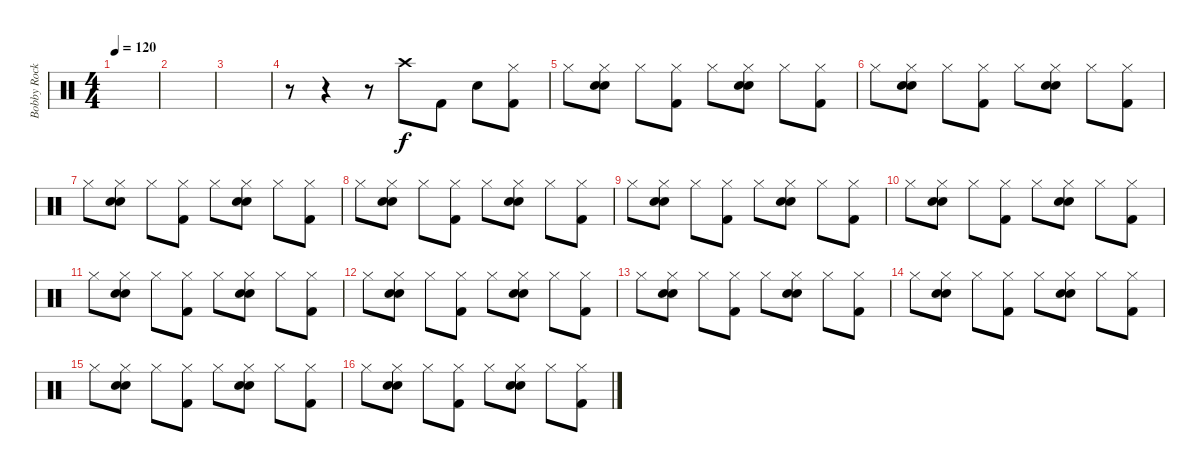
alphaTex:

\track ("Bobby Rock" "Bobby Rock") {instrument percussion}
\staff {score}
\articulation defaults
\ts (4 4)
\tempo 120
\clef neutral
\ks c
|
|
|
r.8 r.4 r.8 "Crash high (hit)".8 "Kick (hit) 2".8 "Electric Snare (hit)".8 ("Hi-Hat (closed)" "Kick (hit) 2").8 |
"Hi-Hat (closed)".8 ("Hi-Hat (closed)" "Snare (hit) 2" "Electric Snare (hit)").8 "Hi-Hat (closed)".8 ("Hi-Hat (closed)" "Kick (hit) 2").8 "Hi-Hat (closed)".8 ("Hi-Hat (closed)" "Snare (hit) 2" "Electric Snare (hit)").8 "Hi-Hat (closed)".8 ("Hi-Hat (closed)" "Kick (hit) 2").8 |
"Hi-Hat (closed)".8 ("Hi-Hat (closed)" "Snare (hit) 2" "Electric Snare (hit)").8 "Hi-Hat (closed)".8 ("Hi-Hat (closed)" "Kick (hit) 2").8 "Hi-Hat (closed)".8 ("Hi-Hat (closed)" "Snare (hit) 2" "Electric Snare (hit)").8 "Hi-Hat (closed)".8 ("Hi-Hat (closed)" "Kick (hit) 2").8 |
"Hi-Hat (closed)".8 ("Hi-Hat (closed)" "Snare (hit) 2" "Electric Snare (hit)").8 "Hi-Hat (closed)".8 ("Hi-Hat (closed)" "Kick (hit) 2").8 "Hi-Hat (closed)".8 ("Hi-Hat (closed)" "Snare (hit) 2" "Electric Snare (hit)").8 "Hi-Hat (closed)".8 ("Hi-Hat (closed)" "Kick (hit) 2").8 |
"Hi-Hat (closed)".8 ("Hi-Hat (closed)" "Snare (hit) 2" "Electric Snare (hit)").8 "Hi-Hat (closed)".8 ("Hi-Hat (closed)" "Kick (hit) 2").8 "Hi-Hat (closed)".8 ("Hi-Hat (closed)" "Snare (hit) 2" "Electric Snare (hit)").8 "Hi-Hat (closed)".8 ("Hi-Hat (closed)" "Kick (hit) 2").8 |
"Hi-Hat (closed)".8 ("Hi-Hat (closed)" "Snare (hit) 2" "Electric Snare (hit)").8 "Hi-Hat (closed)".8 ("Hi-Hat (closed)" "Kick (hit) 2").8 "Hi-Hat (closed)".8 ("Hi-Hat (closed)" "Snare (hit) 2" "Electric Snare (hit)").8 "Hi-Hat (closed)".8 ("Hi-Hat (closed)" "Kick (hit) 2").8 |
"Hi-Hat (closed)".8 ("Hi-Hat (closed)" "Snare (hit) 2" "Electric Snare (hit)").8 "Hi-Hat (closed)".8 ("Hi-Hat (closed)" "Kick (hit) 2").8 "Hi-Hat (closed)".8 ("Hi-Hat (closed)" "Snare (hit) 2" "Electric Snare (hit)").8 "Hi-Hat (closed)".8 ("Hi-Hat (closed)" "Kick (hit) 2").8 |
"Hi-Hat (closed)".8 ("Hi-Hat (closed)" "Snare (hit) 2" "Electric Snare (hit)").8 "Hi-Hat (closed)".8 ("Hi-Hat (closed)" "Kick (hit) 2").8 "Hi-Hat (closed)".8 ("Hi-Hat (closed)" "Snare (hit) 2" "Electric Snare (hit)").8 "Hi-Hat (closed)".8 ("Hi-Hat (closed)" "Kick (hit) 2").8 |
"Hi-Hat (closed)".8 ("Hi-Hat (closed)" "Snare (hit) 2" "Electric Snare (hit)").8 "Hi-Hat (closed)".8 ("Hi-Hat (closed)" "Kick (hit) 2").8 "Hi-Hat (closed)".8 ("Hi-Hat (closed)" "Snare (hit) 2" "Electric Snare (hit)").8 "Hi-Hat (closed)".8 ("Hi-Hat (closed)" "Kick (hit) 2").8 |
"Hi-Hat (closed)".8 ("Hi-Hat (closed)" "Snare (hit) 2" "Electric Snare (hit)").8 "Hi-Hat (closed)".8 ("Hi-Hat (closed)" "Kick (hit) 2").8 "Hi-Hat (closed)".8 ("Hi-Hat (closed)" "Snare (hit) 2" "Electric Snare (hit)").8 "Hi-Hat (closed)".8 ("Hi-Hat (closed)" "Kick (hit) 2").8 |
"Hi-Hat (closed)".8 ("Hi-Hat (closed)" "Snare (hit) 2" "Electric Snare (hit)").8 "Hi-Hat (closed)".8 ("Hi-Hat (closed)" "Kick (hit) 2").8 "Hi-Hat (closed)".8 ("Hi-Hat (closed)" "Snare (hit) 2" "Electric Snare (hit)").8 "Hi-Hat (closed)".8 ("Hi-Hat (closed)" "Kick (hit) 2").8 |
"Hi-Hat (closed)".8 ("Hi-Hat (closed)" "Snare (hit) 2" "Electric Snare (hit)").8 "Hi-Hat (closed)".8 ("Hi-Hat (closed)" "Kick (hit) 2").8 "Hi-Hat (closed)".8 ("Hi-Hat (closed)" "Snare (hit) 2" "Electric Snare (hit)").8 "Hi-Hat (closed)".8 ("Hi-Hat (closed)" "Kick (hit) 2").8 |
"Hi-Hat (closed)".8 ("Hi-Hat (closed)" "Snare (hit) 2" "Electric Snare (hit)").8 "Hi-Hat (closed)".8 ("Hi-Hat (closed)" "Kick (hit) 2").8 "Hi-Hat (closed)".8 ("Hi-Hat (closed)" "Snare (hit) 2" "Electric Snare (hit)").8 "Hi-Hat (closed)".8 ("Hi-Hat (closed)" "Kick (hit) 2").8
